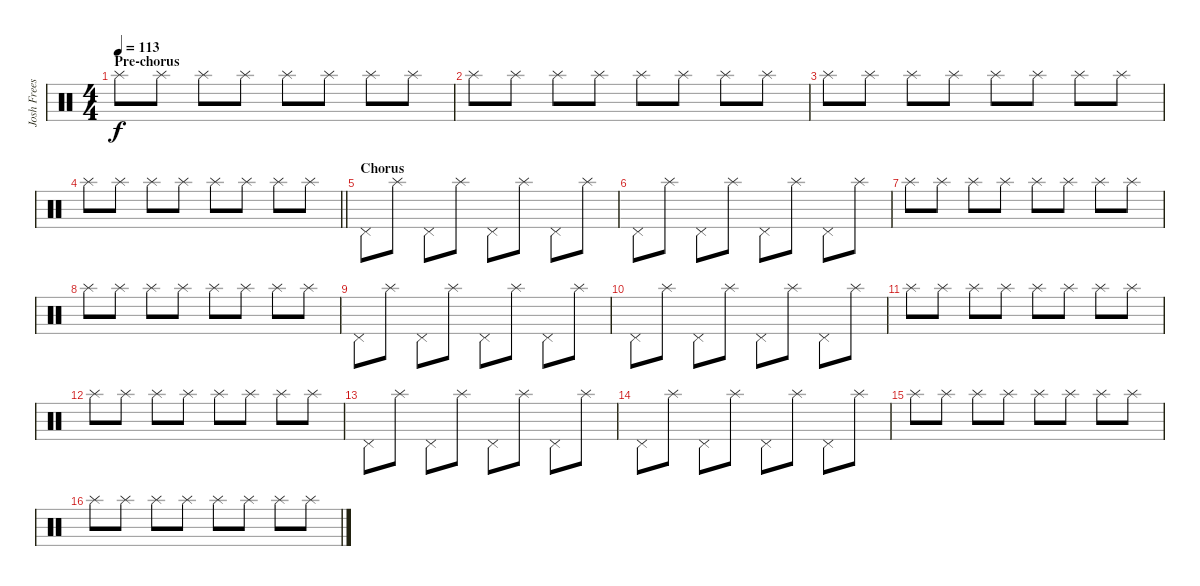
\track ("Josh Freese (Studio Drummer)" "Josh Frees") {instrument percussion}
\staff {score}
\articulation defaults
\ts (4 4)
\section ("" "Pre-chorus")
\tempo 113
\clef neutral
\ks c "Splash (hit)".8{dy f} "Splash (hit)".8 "Splash (hit)".8 "Splash (hit)".8 "Splash (hit)".8 "Splash (hit)".8 "Splash (hit)".8 "Splash (hit)".8
|
"Splash (hit)".8 "Splash (hit)".8 "Splash (hit)".8 "Splash (hit)".8 "Splash (hit)".8 "Splash (hit)".8 "Splash (hit)".8 "Splash (hit)".8 |
"Splash (hit)".8 "Splash (hit)".8 "Splash (hit)".8 "Splash (hit)".8 "Splash (hit)".8 "Splash (hit)".8 "Splash (hit)".8 "Splash (hit)".8 |
\barLineRight lightlight "Splash (hit)".8 "Splash (hit)".8 "Splash (hit)".8 "Splash (hit)".8 "Splash (hit)".8 "Splash (hit)".8 "Splash (hit)".8 "Splash (hit)".8
|
\section ("" "Chorus")
"Pedal Hi-Hat (hit)".8 "Splash (hit)".8 "Pedal Hi-Hat (hit)".8 "Splash (hit)".8 "Pedal Hi-Hat (hit)".8 "Splash (hit)".8 "Pedal Hi-Hat (hit)".8 "Splash (hit)".8 |
"Pedal Hi-Hat (hit)".8 "Splash (hit)".8 "Pedal Hi-Hat (hit)".8 "Splash (hit)".8 "Pedal Hi-Hat (hit)".8 "Splash (hit)".8 "Pedal Hi-Hat (hit)".8 "Splash (hit)".8 |
"Splash (hit)".8 "Splash (hit)".8 "Splash (hit)".8 "Splash (hit)".8 "Splash (hit)".8 "Splash (hit)".8 "Splash (hit)".8 "Splash (hit)".8 |
"Splash (hit)".8 "Splash (hit)".8 "Splash (hit)".8 "Splash (hit)".8 "Splash (hit)".8 "Splash (hit)".8 "Splash (hit)".8 "Splash (hit)".8 |
"Pedal Hi-Hat (hit)".8 "Splash (hit)".8 "Pedal Hi-Hat (hit)".8 "Splash (hit)".8 "Pedal Hi-Hat (hit)".8 "Splash (hit)".8 "Pedal Hi-Hat (hit)".8 "Splash (hit)".8 |
"Pedal Hi-Hat (hit)".8 "Splash (hit)".8 "Pedal Hi-Hat (hit)".8 "Splash (hit)".8 "Pedal Hi-Hat (hit)".8 "Splash (hit)".8 "Pedal Hi-Hat (hit)".8 "Splash (hit)".8 |
"Splash (hit)".8 "Splash (hit)".8 "Splash (hit)".8 "Splash (hit)".8 "Splash (hit)".8 "Splash (hit)".8 "Splash (hit)".8 "Splash (hit)".8 |
"Splash (hit)".8 "Splash (hit)".8 "Splash (hit)".8 "Splash (hit)".8 "Splash (hit)".8 "Splash (hit)".8 "Splash (hit)".8 "Splash (hit)".8 |
"Pedal Hi-Hat (hit)".8 "Splash (hit)".8 "Pedal Hi-Hat (hit)".8 "Splash (hit)".8 "Pedal Hi-Hat (hit)".8 "Splash (hit)".8 "Pedal Hi-Hat (hit)".8 "Splash (hit)".8 |
"Pedal Hi-Hat (hit)".8 "Splash (hit)".8 "Pedal Hi-Hat (hit)".8 "Splash (hit)".8 "Pedal Hi-Hat (hit)".8 "Splash (hit)".8 "Pedal Hi-Hat (hit)".8 "Splash (hit)".8 |
"Splash (hit)".8 "Splash (hit)".8 "Splash (hit)".8 "Splash (hit)".8 "Splash (hit)".8 "Splash (hit)".8 "Splash (hit)".8 "Splash (hit)".8 |
"Splash (hit)".8 "Splash (hit)".8 "Splash (hit)".8 "Splash (hit)".8 "Splash (hit)".8 "Splash (hit)".8 "Splash (hit)".8 "Splash (hit)".8
